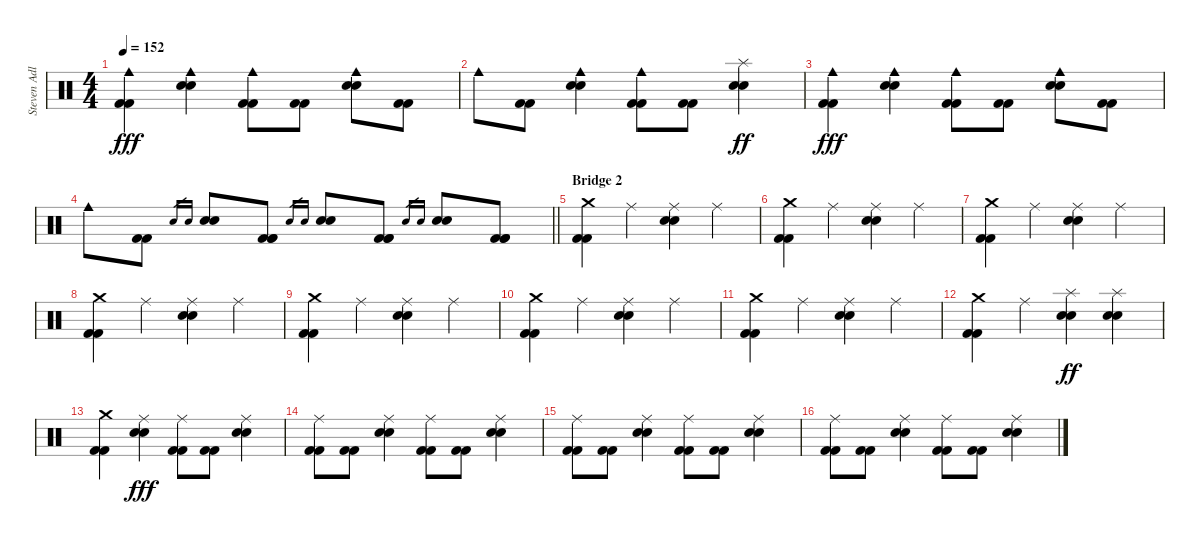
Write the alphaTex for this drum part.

\track ("Steven Adler" "Steven Adl") {instrument percussion}
\staff {score}
\articulation defaults
\ts (4 4)
\tempo 152
\clef neutral
\ks c
("Cowbell medium (hit)" "Kick (hit) 2" "Kick (hit) 2").4{dy fff} ("Cowbell medium (hit)" "Electric Snare (hit)" "Electric Snare (hit)").4 ("Cowbell medium (hit)" "Kick (hit) 2" "Kick (hit) 2").8 ("Kick (hit) 2" "Kick (hit) 2").8 ("Cowbell medium (hit)" "Electric Snare (hit)" "Electric Snare (hit)").8 ("Kick (hit) 2" "Kick (hit) 2").8 |
"Cowbell medium (hit)".8 ("Kick (hit) 2" "Kick (hit) 2").8 ("Cowbell medium (hit)" "Electric Snare (hit)" "Electric Snare (hit)").4 ("Cowbell medium (hit)" "Kick (hit) 2" "Kick (hit) 2").8 ("Kick (hit) 2" "Kick (hit) 2").8 ("Splash (hit)" "Electric Snare (hit)" "Electric Snare (hit)").4{dy ff} |
("Cowbell medium (hit)" "Kick (hit) 2" "Kick (hit) 2").4{dy fff} ("Cowbell medium (hit)" "Electric Snare (hit)" "Electric Snare (hit)").4 ("Cowbell medium (hit)" "Kick (hit) 2" "Kick (hit) 2").8 ("Kick (hit) 2" "Kick (hit) 2").8 ("Cowbell medium (hit)" "Electric Snare (hit)" "Electric Snare (hit)").8 ("Kick (hit) 2" "Kick (hit) 2").8 |
\barLineRight lightlight "Cowbell medium (hit)".8
("Kick (hit) 2" "Kick (hit) 2").8 "Electric Snare (hit)".16{gr} "Electric Snare (hit)".16{gr} ("Electric Snare (hit)" "Electric Snare (hit)").8 ("Kick (hit) 2" "Kick (hit) 2" "Kick (hit) 2").8 "Electric Snare (hit)".16{gr} "Electric Snare (hit)".16{gr} ("Electric Snare (hit)" "Electric Snare (hit)").8 ("Kick (hit) 2" "Kick (hit) 2" "Kick (hit) 2").8 "Electric Snare (hit)".16{gr} "Electric Snare (hit)".16{gr} ("Electric Snare (hit)" "Electric Snare (hit)").8 ("Kick (hit) 2" "Kick (hit) 2" "Kick (hit) 2").8 |
\section ("" "Bridge 2")
("Crash medium (hit)" "Kick (hit) 2" "Kick (hit) 2").4 "Ride (middle)".4 ("Ride (middle)" "Electric Snare (hit)" "Electric Snare (hit)").4 "Ride (middle)".4 |
("Crash medium (hit)" "Kick (hit) 2" "Kick (hit) 2").4 "Ride (middle)".4 ("Ride (middle)" "Electric Snare (hit)" "Electric Snare (hit)").4 "Ride (middle)".4 |
("Crash medium (hit)" "Kick (hit) 2" "Kick (hit) 2").4 "Ride (middle)".4 ("Ride (middle)" "Electric Snare (hit)" "Electric Snare (hit)").4 "Ride (middle)".4 |
("Crash medium (hit)" "Kick (hit) 2" "Kick (hit) 2").4 "Ride (middle)".4 ("Ride (middle)" "Electric Snare (hit)" "Electric Snare (hit)").4 "Ride (middle)".4 |
("Crash medium (hit)" "Kick (hit) 2" "Kick (hit) 2").4 "Ride (middle)".4 ("Ride (middle)" "Electric Snare (hit)" "Electric Snare (hit)").4 "Ride (middle)".4 |
("Crash medium (hit)" "Kick (hit) 2" "Kick (hit) 2").4 "Ride (middle)".4 ("Ride (middle)" "Electric Snare (hit)" "Electric Snare (hit)").4 "Ride (middle)".4 |
("Crash medium (hit)" "Kick (hit) 2" "Kick (hit) 2").4 "Ride (middle)".4 ("Ride (middle)" "Electric Snare (hit)" "Electric Snare (hit)").4 "Ride (middle)".4 |
("Crash medium (hit)" "Kick (hit) 2" "Kick (hit) 2").4 "Ride (middle)".4 ("Splash (hit)" "Electric Snare (hit)" "Electric Snare (hit)").4{dy ff} ("Splash (hit)" "Electric Snare (hit)" "Electric Snare (hit)").4 |
("Crash medium (hit)" "Kick (hit) 2" "Kick (hit) 2").4 ("Ride (middle)" "Electric Snare (hit)" "Electric Snare (hit)").4{dy fff} ("Ride (middle)" "Kick (hit) 2" "Kick (hit) 2").8 ("Kick (hit) 2" "Kick (hit) 2").8 ("Ride (middle)" "Electric Snare (hit)" "Electric Snare (hit)").4 |
("Ride (middle)" "Kick (hit) 2" "Kick (hit) 2").8 ("Kick (hit) 2" "Kick (hit) 2").8 ("Ride (middle)" "Electric Snare (hit)" "Electric Snare (hit)").4 ("Ride (middle)" "Kick (hit) 2" "Kick (hit) 2").8 ("Kick (hit) 2" "Kick (hit) 2").8 ("Ride (middle)" "Electric Snare (hit)" "Electric Snare (hit)").4 |
("Ride (middle)" "Kick (hit) 2" "Kick (hit) 2").8 ("Kick (hit) 2" "Kick (hit) 2").8 ("Ride (middle)" "Electric Snare (hit)" "Electric Snare (hit)").4 ("Ride (middle)" "Kick (hit) 2" "Kick (hit) 2").8 ("Kick (hit) 2" "Kick (hit) 2").8 ("Ride (middle)" "Electric Snare (hit)" "Electric Snare (hit)").4 |
("Ride (middle)" "Kick (hit) 2" "Kick (hit) 2").8 ("Kick (hit) 2" "Kick (hit) 2").8 ("Ride (middle)" "Electric Snare (hit)" "Electric Snare (hit)").4 ("Ride (middle)" "Kick (hit) 2" "Kick (hit) 2").8 ("Kick (hit) 2" "Kick (hit) 2").8 ("Ride (middle)" "Electric Snare (hit)" "Electric Snare (hit)").4
